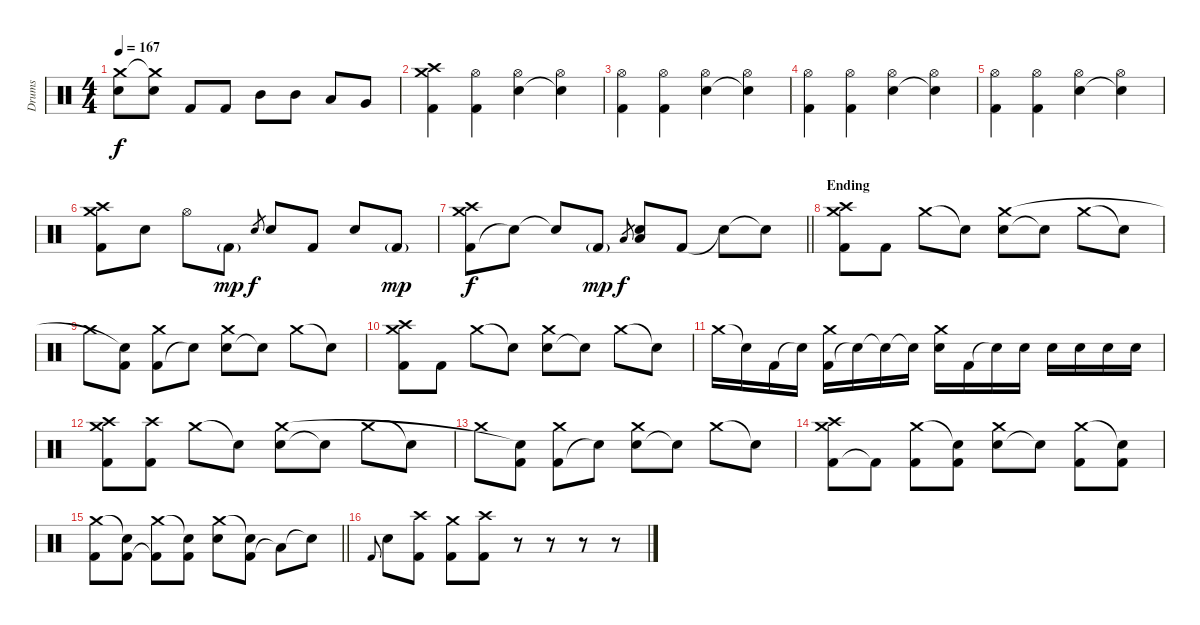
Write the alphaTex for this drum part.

\track ("Drums" "Drums") {instrument percussion}
\staff {score}
\articulation defaults
\ts (4 4)
\tempo 167
\clef neutral
\ks c
("Electric Snare (hit)" "Crash medium (hit)").8{dy f} ("Electric Snare (hit)" "Crash medium (hit)"{t}).8 "Kick (hit) 2".8 "Kick (hit) 2".8 "Mid Tom (hit)".8 "Mid Tom (hit)".8 "Low Tom (hit)".8 "Very Low Tom (hit)".8 |
("Kick (hit) 2" "Crash medium (hit)" "Crash high (hit)").4 ("Kick (hit) 2" "Hi-Hat (open)").4 ("Electric Snare (hit)" "Hi-Hat (open)").4 ("Snare (hit)"{t} "Hi-Hat (open)").4 |
("Kick (hit) 2" "Hi-Hat (open)").4 ("Kick (hit) 2" "Hi-Hat (open)").4 ("Electric Snare (hit)" "Hi-Hat (open)").4 ("Snare (hit)"{t} "Hi-Hat (open)").4 |
("Kick (hit) 2" "Hi-Hat (open)").4 ("Kick (hit) 2" "Hi-Hat (open)").4 ("Electric Snare (hit)" "Hi-Hat (open)").4 ("Snare (hit)"{t} "Hi-Hat (open)").4 |
("Kick (hit) 2" "Hi-Hat (open)").4 ("Kick (hit) 2" "Hi-Hat (open)").4 ("Electric Snare (hit)" "Hi-Hat (open)").4 ("Snare (hit)"{t} "Hi-Hat (open)").4 |
("Kick (hit) 2" "Crash medium (hit)" "Crash high (hit)").8 "Electric Snare (hit)".8 "Hi-Hat (open)".8 "Kick (hit) 2"{g}.8{dy mp} "Electric Snare (hit)".8{gr dy f} "Electric Snare (hit)".8 "Kick (hit) 2".8 "Electric Snare (hit)".8 "Kick (hit) 2"{g}.8{dy mp} |
\barLineRight lightlight
("Kick (hit) 2" "Crash medium (hit)" "Crash high (hit)").8{dy f} "Snare (hit)"{t}.8 "Snare (hit)"{t}.8 "Kick (hit) 2"{g}.8{dy mp} "Low Tom (hit)".8{gr dy f} ("Low Tom (hit)" "Electric Snare (hit)").8 "Kick (hit) 2".8 "Snare (hit)"{t}.8 "Snare (hit)"{t}.8 |
\section ("" "Ending")
("Kick (hit) 2" "Crash medium (hit)" "Crash high (hit)").8 "Kick (hit) 2".8 "Crash medium (hit)".8 "Snare (hit)"{t}.8 ("Electric Snare (hit)" "Crash medium (hit)").8 "Snare (hit)"{t}.8 "Crash medium (hit)".8 "Snare (hit)"{t}.8 |
"Crash medium (hit)".8 ("Kick (hit) 2" "Snare (hit)"{t}).8 ("Kick (hit) 2" "Crash medium (hit)").8 "Snare (hit)"{t}.8 ("Electric Snare (hit)" "Crash medium (hit)").8 "Snare (hit)"{t}.8 "Crash medium (hit)".8 "Snare (hit)"{t}.8 |
("Kick (hit) 2" "Crash medium (hit)" "Crash high (hit)").8 "Kick (hit) 2".8 "Crash medium (hit)".8 "Snare (hit)"{t}.8 ("Electric Snare (hit)" "Crash medium (hit)").8 "Snare (hit)"{t}.8 "Crash medium (hit)".8 "Snare (hit)"{t}.8 |
"Crash medium (hit)".16 "Snare (hit)"{t}.16 "Kick (hit) 2".16 "Snare (hit)"{t}.16 ("Kick (hit) 2" "Crash medium (hit)").16 "Snare (hit)"{t}.16 "Snare (hit)"{t}.16 "Snare (hit)"{t}.16 ("Electric Snare (hit)" "Crash medium (hit)").16 "Kick (hit) 2".16 "Electric Snare (hit)"{t}.16 "Electric Snare (hit)".16 "Electric Snare (hit)".16 "Electric Snare (hit)".16 "Electric Snare (hit)".16 "Electric Snare (hit)".16 |
("Kick (hit) 2" "Crash medium (hit)" "Crash high (hit)").8 ("Kick (hit) 2" "Crash high (hit)").8 "Crash medium (hit)".8 "Snare (hit)"{t}.8 ("Electric Snare (hit)" "Crash medium (hit)").8 "Snare (hit)"{t}.8 "Crash medium (hit)".8 "Snare (hit)"{t}.8 |
"Crash medium (hit)".8 ("Kick (hit) 2" "Snare (hit)"{t}).8 ("Kick (hit) 2" "Crash medium (hit)").8 "Snare (hit)"{t}.8 ("Electric Snare (hit)" "Crash medium (hit)").8 "Snare (hit)"{t}.8 "Crash medium (hit)".8 "Snare (hit)"{t}.8 |
("Kick (hit) 2" "Crash medium (hit)" "Crash high (hit)").8 "Kick (hit) 2"{t}.8 ("Kick (hit) 2" "Crash medium (hit)").8 ("Kick (hit) 2" "Snare (hit)"{t}).8 ("Electric Snare (hit)" "Crash medium (hit)").8 "Snare (hit)"{t}.8 ("Kick (hit) 2" "Crash medium (hit)").8 ("Kick (hit) 2" "Snare (hit)"{t}).8 |
\barLineRight lightlight
("Kick (hit) 2" "Crash medium (hit)").8 ("Kick (hit) 2" "Snare (hit)"{t}).8 ("Kick (hit) 2"{t} "Crash medium (hit)").8 ("Kick (hit) 2" "Snare (hit)"{t}).8 ("Electric Snare (hit)" "Crash medium (hit)").8 ("Kick (hit) 2" "Snare (hit)"{t}).8 "Low Tom (hit)"{t}.8 "Snare (hit)"{t}.8 |
"Kick (hit) 2".8{gr onbeat} "Electric Snare (hit)".8 ("Kick (hit) 2" "Crash high (hit)").8 ("Kick (hit) 2" "Crash medium (hit)").8 ("Kick (hit) 2" "Crash high (hit)").8 r.8 r.8 r.8 r.8
